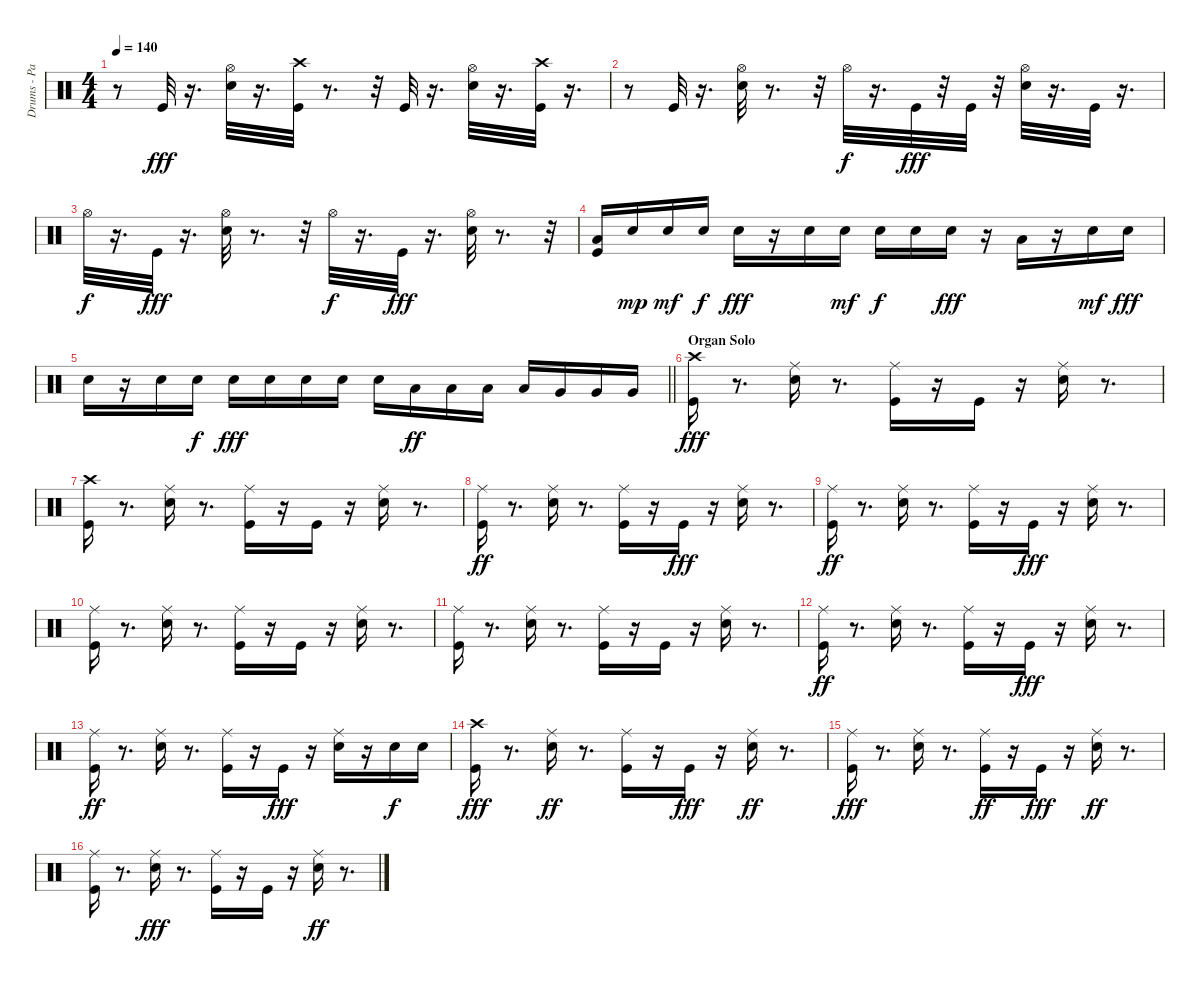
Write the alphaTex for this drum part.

\track ("Drums - Paice" "Drums - Pa") {instrument percussion}
\staff {score}
\articulation defaults
\ts (4 4)
\tempo 140
\clef neutral
\ks c
r.8{dy fff} "Kick (hit)".32 r.16{d} ("Hi-Hat (open)" "Snare (hit) 2").32 r.16{d} ("Crash high (hit)" "Kick (hit)").32 r.8{d} r.32 "Kick (hit)".32 r.16{d} ("Hi-Hat (open)" "Snare (hit) 2").32 r.16{d} ("Kick (hit)" "Crash high (hit)").32 r.16{d} |
r.8 "Kick (hit)".32 r.16{d} ("Hi-Hat (open)" "Snare (hit) 2").32 r.8{d} r.32 "Hi-Hat (open)".32{dy f} r.16{d} "Kick (hit)".32{dy fff} r.32 "Kick (hit)".32 r.32 ("Hi-Hat (open)" "Snare (hit) 2").32 r.16{d} "Kick (hit)".32 r.16{d} |
"Hi-Hat (open)".32{dy f} r.16{d} "Kick (hit)".32{dy fff} r.16{d} ("Snare (hit) 2" "Hi-Hat (open)").32 r.8{d} r.32 "Hi-Hat (open)".32{dy f} r.16{d} "Kick (hit)".32{dy fff} r.16{d} ("Hi-Hat (open)" "Snare (hit) 2").32 r.8{d} r.32 |
("Low Tom (hit)" "Kick (hit)").16 "Snare (hit) 2".16{dy mp} "Snare (hit) 2".16{dy mf} "Snare (hit) 2".16{dy f} "Snare (hit) 2".16{dy fff} r.16 "Snare (hit) 2".16 "Snare (hit) 2".16{dy mf} "Snare (hit) 2".16{dy f} "Snare (hit) 2".16 "Snare (hit) 2".16{dy fff} r.16 "Low Tom (hit)".16 r.16 "Snare (hit) 2".16{dy mf} "Snare (hit) 2".16{dy fff} |
\barLineRight lightlight "Snare (hit) 2".16
r.16 "Snare (hit) 2".16 "Snare (hit) 2".16{dy f} "Snare (hit) 2".16{dy fff} "Snare (hit) 2".16 "Snare (hit) 2".16 "Snare (hit) 2".16 "Snare (hit) 2".16 "Low Tom (hit)".16{dy ff} "Low Tom (hit)".16 "Low Tom (hit)".16 "Low Tom (hit)".16 "Very Low Tom (hit)".16 "Very Low Tom (hit)".16 "Very Low Tom (hit)".16 |
\section ("" "Organ Solo")
("Crash high (hit)" "Kick (hit)").16{dy fff} r.8{d} ("Ride (middle)" "Snare (hit) 2").16 r.8{d} ("Ride (middle)" "Kick (hit)").16 r.16 "Kick (hit)".16 r.16 ("Ride (middle)" "Snare (hit) 2").16 r.8{d} |
("Crash high (hit)" "Kick (hit)").16 r.8{d} ("Ride (middle)" "Snare (hit) 2").16 r.8{d} ("Ride (middle)" "Kick (hit)").16 r.16 "Kick (hit)".16 r.16 ("Ride (middle)" "Snare (hit) 2").16 r.8{d} |
("Kick (hit)" "Ride (middle)").16{dy ff} r.8{d} ("Snare (hit) 2" "Ride (middle)").16 r.8{d} ("Kick (hit)" "Ride (middle)").16 r.16 "Kick (hit)".16{dy fff} r.16 ("Ride (middle)" "Snare (hit) 2").16 r.8{d} |
("Kick (hit)" "Ride (middle)").16{dy ff} r.8{d} ("Snare (hit) 2" "Ride (middle)").16 r.8{d} ("Kick (hit)" "Ride (middle)").16 r.16 "Kick (hit)".16{dy fff} r.16 ("Ride (middle)" "Snare (hit) 2").16 r.8{d} |
("Ride (middle)" "Kick (hit)").16 r.8{d} ("Ride (middle)" "Snare (hit) 2").16 r.8{d} ("Ride (middle)" "Kick (hit)").16 r.16 "Kick (hit)".16 r.16 ("Ride (middle)" "Snare (hit) 2").16 r.8{d} |
("Ride (middle)" "Kick (hit)").16 r.8{d} ("Ride (middle)" "Snare (hit) 2").16 r.8{d} ("Ride (middle)" "Kick (hit)").16 r.16 "Kick (hit)".16 r.16 ("Ride (middle)" "Snare (hit) 2").16 r.8{d} |
("Kick (hit)" "Ride (middle)").16{dy ff} r.8{d} ("Snare (hit) 2" "Ride (middle)").16 r.8{d} ("Kick (hit)" "Ride (middle)").16 r.16 "Kick (hit)".16{dy fff} r.16 ("Ride (middle)" "Snare (hit) 2").16 r.8{d} |
("Kick (hit)" "Ride (middle)").16{dy ff} r.8{d} ("Snare (hit) 2" "Ride (middle)").16 r.8{d} ("Kick (hit)" "Ride (middle)").16 r.16 "Kick (hit)".16{dy fff} r.16 ("Ride (middle)" "Snare (hit) 2").16 r.16 "Snare (hit) 2".16{dy f} "Snare (hit) 2".16 |
("Kick (hit)" "Crash high (hit)").16{dy fff} r.8{d} ("Snare (hit) 2" "Ride (middle)").16{dy ff} r.8{d} ("Kick (hit)" "Ride (middle)").16 r.16 "Kick (hit)".16{dy fff} r.16 ("Snare (hit) 2" "Ride (middle)").16{dy ff} r.8{d} |
("Ride (middle)" "Kick (hit)").16{dy fff} r.8{d} ("Ride (middle)" "Snare (hit) 2").16 r.8{d} ("Kick (hit)" "Ride (middle)").16{dy ff} r.16 "Kick (hit)".16{dy fff} r.16 ("Snare (hit) 2" "Ride (middle)").16{dy ff} r.8{d} |
("Kick (hit)" "Ride (middle)").16 r.8{d} ("Ride (middle)" "Snare (hit) 2").16{dy fff} r.8{d} ("Ride (middle)" "Kick (hit)").16 r.16 "Kick (hit)".16 r.16 ("Snare (hit) 2" "Ride (middle)").16{dy ff} r.8{d}
